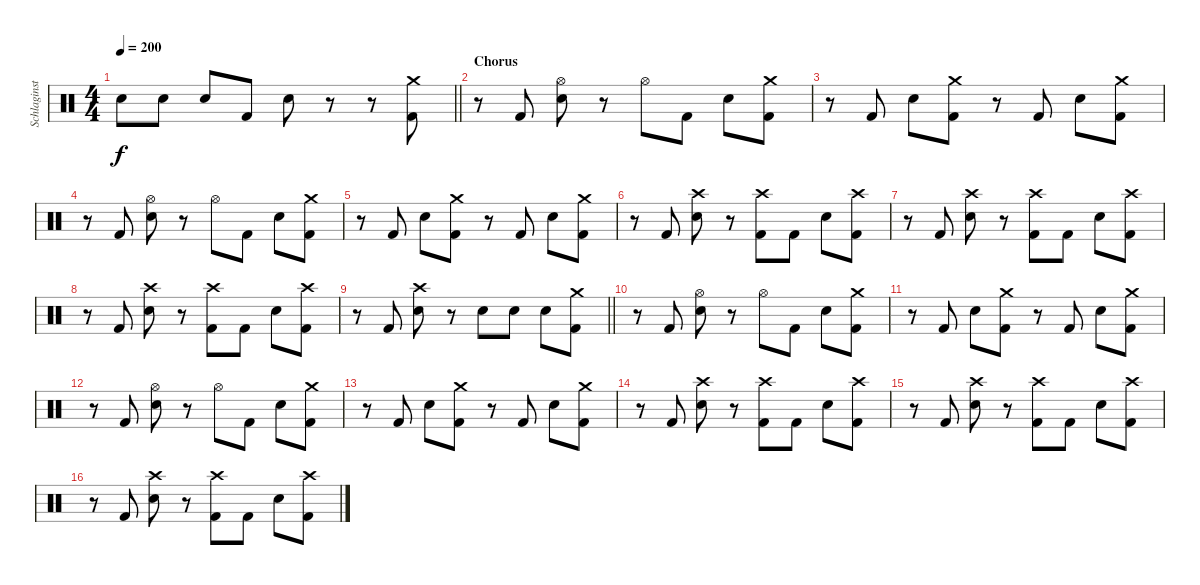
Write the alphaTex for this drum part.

\track ("Schlaginstrumente - Auswahl" "Schlaginst") {instrument percussion}
\staff {score}
\articulation defaults
\ts (4 4)
\tempo 200
\clef neutral
\barLineRight lightlight
\ks c "Electric Snare (hit)".8{dy f} "Electric Snare (hit)".8 "Electric Snare (hit)".8 "Kick (hit) 2".8 "Electric Snare (hit)".8
r.8 r.8 ("Crash medium (hit)" "Kick (hit) 2").8 |
\section ("" "Chorus")
r.8 "Kick (hit) 2".8 ("Hi-Hat (open)" "Electric Snare (hit)").8 r.8 "Hi-Hat (open)".8 "Kick (hit) 2".8 "Electric Snare (hit)".8 ("Crash medium (hit)" "Kick (hit) 2").8 |
r.8 "Kick (hit) 2".8 "Electric Snare (hit)".8 ("Crash medium (hit)" "Kick (hit) 2").8 r.8 "Kick (hit) 2".8 "Electric Snare (hit)".8 ("Crash medium (hit)" "Kick (hit) 2").8 |
r.8 "Kick (hit) 2".8 ("Hi-Hat (open)" "Electric Snare (hit)").8 r.8 "Hi-Hat (open)".8 "Kick (hit) 2".8 "Electric Snare (hit)".8 ("Crash medium (hit)" "Kick (hit) 2").8 |
r.8 "Kick (hit) 2".8 "Electric Snare (hit)".8 ("Crash medium (hit)" "Kick (hit) 2").8 r.8 "Kick (hit) 2".8 "Electric Snare (hit)".8 ("Crash medium (hit)" "Kick (hit) 2").8 |
r.8 "Kick (hit) 2".8 ("Crash high (hit)" "Electric Snare (hit)").8 r.8 ("Crash high (hit)" "Kick (hit) 2").8 "Kick (hit) 2".8 "Electric Snare (hit)".8 ("Crash high (hit)" "Kick (hit) 2").8 |
r.8 "Kick (hit) 2".8 ("Crash high (hit)" "Electric Snare (hit)").8 r.8 ("Crash high (hit)" "Kick (hit) 2").8 "Kick (hit) 2".8 "Electric Snare (hit)".8 ("Crash high (hit)" "Kick (hit) 2").8 |
r.8 "Kick (hit) 2".8 ("Crash high (hit)" "Electric Snare (hit)").8 r.8 ("Crash high (hit)" "Kick (hit) 2").8 "Kick (hit) 2".8 "Electric Snare (hit)".8 ("Crash high (hit)" "Kick (hit) 2").8 |
\barLineRight lightlight
r.8 "Kick (hit) 2".8 ("Crash high (hit)" "Electric Snare (hit)").8 r.8 "Electric Snare (hit)".8 "Electric Snare (hit)".8 "Electric Snare (hit)".8 ("Crash medium (hit)" "Kick (hit) 2").8 |
r.8 "Kick (hit) 2".8 ("Hi-Hat (open)" "Electric Snare (hit)").8 r.8 "Hi-Hat (open)".8 "Kick (hit) 2".8 "Electric Snare (hit)".8 ("Crash medium (hit)" "Kick (hit) 2").8 |
r.8 "Kick (hit) 2".8 "Electric Snare (hit)".8 ("Crash medium (hit)" "Kick (hit) 2").8 r.8 "Kick (hit) 2".8 "Electric Snare (hit)".8 ("Crash medium (hit)" "Kick (hit) 2").8 |
r.8 "Kick (hit) 2".8 ("Hi-Hat (open)" "Electric Snare (hit)").8 r.8 "Hi-Hat (open)".8 "Kick (hit) 2".8 "Electric Snare (hit)".8 ("Crash medium (hit)" "Kick (hit) 2").8 |
r.8 "Kick (hit) 2".8 "Electric Snare (hit)".8 ("Crash medium (hit)" "Kick (hit) 2").8 r.8 "Kick (hit) 2".8 "Electric Snare (hit)".8 ("Crash medium (hit)" "Kick (hit) 2").8 |
r.8 "Kick (hit) 2".8 ("Crash high (hit)" "Electric Snare (hit)").8 r.8 ("Crash high (hit)" "Kick (hit) 2").8 "Kick (hit) 2".8 "Electric Snare (hit)".8 ("Crash high (hit)" "Kick (hit) 2").8 |
r.8 "Kick (hit) 2".8 ("Crash high (hit)" "Electric Snare (hit)").8 r.8 ("Crash high (hit)" "Kick (hit) 2").8 "Kick (hit) 2".8 "Electric Snare (hit)".8 ("Crash high (hit)" "Kick (hit) 2").8 |
r.8 "Kick (hit) 2".8 ("Crash high (hit)" "Electric Snare (hit)").8 r.8 ("Crash high (hit)" "Kick (hit) 2").8 "Kick (hit) 2".8 "Electric Snare (hit)".8 ("Crash high (hit)" "Kick (hit) 2").8
